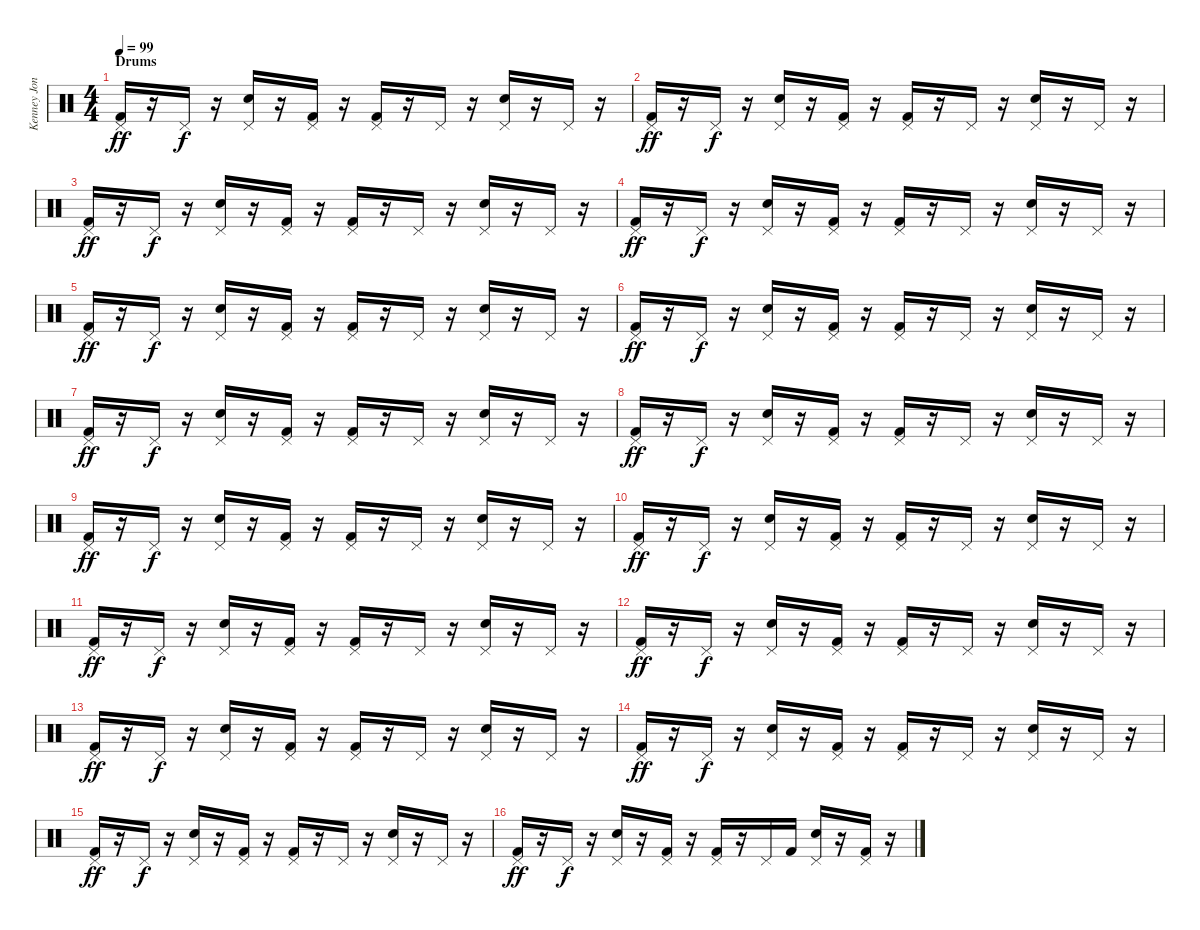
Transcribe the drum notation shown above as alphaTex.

\track ("Kenney Jones" "Kenney Jon") {instrument percussion}
\staff {score}
\articulation defaults
\ts (4 4)
\section ("" "Drums")
\tempo 99
\clef neutral
\ks c
("Pedal Hi-Hat (hit)" "Kick (hit) 2").16{dy ff} r.16 "Pedal Hi-Hat (hit)".16{dy f} r.16 ("Pedal Hi-Hat (hit)" "Snare (hit) 2").16 r.16 ("Pedal Hi-Hat (hit)" "Kick (hit) 2").16 r.16 ("Pedal Hi-Hat (hit)" "Kick (hit) 2").16 r.16 "Pedal Hi-Hat (hit)".16 r.16 ("Pedal Hi-Hat (hit)" "Snare (hit) 2").16 r.16 "Pedal Hi-Hat (hit)".16 r.16 |
("Pedal Hi-Hat (hit)" "Kick (hit) 2").16{dy ff} r.16 "Pedal Hi-Hat (hit)".16{dy f} r.16 ("Pedal Hi-Hat (hit)" "Snare (hit) 2").16 r.16 ("Pedal Hi-Hat (hit)" "Kick (hit) 2").16 r.16 ("Pedal Hi-Hat (hit)" "Kick (hit) 2").16 r.16 "Pedal Hi-Hat (hit)".16 r.16 ("Pedal Hi-Hat (hit)" "Snare (hit) 2").16 r.16 "Pedal Hi-Hat (hit)".16 r.16 |
("Pedal Hi-Hat (hit)" "Kick (hit) 2").16{dy ff} r.16 "Pedal Hi-Hat (hit)".16{dy f} r.16 ("Pedal Hi-Hat (hit)" "Snare (hit) 2").16 r.16 ("Pedal Hi-Hat (hit)" "Kick (hit) 2").16 r.16 ("Pedal Hi-Hat (hit)" "Kick (hit) 2").16 r.16 "Pedal Hi-Hat (hit)".16 r.16 ("Pedal Hi-Hat (hit)" "Snare (hit) 2").16 r.16 "Pedal Hi-Hat (hit)".16 r.16 |
("Pedal Hi-Hat (hit)" "Kick (hit) 2").16{dy ff} r.16 "Pedal Hi-Hat (hit)".16{dy f} r.16 ("Pedal Hi-Hat (hit)" "Snare (hit) 2").16 r.16 ("Pedal Hi-Hat (hit)" "Kick (hit) 2").16 r.16 ("Pedal Hi-Hat (hit)" "Kick (hit) 2").16 r.16 "Pedal Hi-Hat (hit)".16 r.16 ("Pedal Hi-Hat (hit)" "Snare (hit) 2").16 r.16 "Pedal Hi-Hat (hit)".16 r.16 |
("Pedal Hi-Hat (hit)" "Kick (hit) 2").16{dy ff} r.16 "Pedal Hi-Hat (hit)".16{dy f} r.16 ("Pedal Hi-Hat (hit)" "Snare (hit) 2").16 r.16 ("Pedal Hi-Hat (hit)" "Kick (hit) 2").16 r.16 ("Pedal Hi-Hat (hit)" "Kick (hit) 2").16 r.16 "Pedal Hi-Hat (hit)".16 r.16 ("Pedal Hi-Hat (hit)" "Snare (hit) 2").16 r.16 "Pedal Hi-Hat (hit)".16 r.16 |
("Pedal Hi-Hat (hit)" "Kick (hit) 2").16{dy ff} r.16 "Pedal Hi-Hat (hit)".16{dy f} r.16 ("Pedal Hi-Hat (hit)" "Snare (hit) 2").16 r.16 ("Pedal Hi-Hat (hit)" "Kick (hit) 2").16 r.16 ("Pedal Hi-Hat (hit)" "Kick (hit) 2").16 r.16 "Pedal Hi-Hat (hit)".16 r.16 ("Pedal Hi-Hat (hit)" "Snare (hit) 2").16 r.16 "Pedal Hi-Hat (hit)".16 r.16 |
("Pedal Hi-Hat (hit)" "Kick (hit) 2").16{dy ff} r.16 "Pedal Hi-Hat (hit)".16{dy f} r.16 ("Pedal Hi-Hat (hit)" "Snare (hit) 2").16 r.16 ("Pedal Hi-Hat (hit)" "Kick (hit) 2").16 r.16 ("Pedal Hi-Hat (hit)" "Kick (hit) 2").16 r.16 "Pedal Hi-Hat (hit)".16 r.16 ("Pedal Hi-Hat (hit)" "Snare (hit) 2").16 r.16 "Pedal Hi-Hat (hit)".16 r.16 |
("Pedal Hi-Hat (hit)" "Kick (hit) 2").16{dy ff} r.16 "Pedal Hi-Hat (hit)".16{dy f} r.16 ("Pedal Hi-Hat (hit)" "Snare (hit) 2").16 r.16 ("Pedal Hi-Hat (hit)" "Kick (hit) 2").16 r.16 ("Pedal Hi-Hat (hit)" "Kick (hit) 2").16 r.16 "Pedal Hi-Hat (hit)".16 r.16 ("Pedal Hi-Hat (hit)" "Snare (hit) 2").16 r.16 "Pedal Hi-Hat (hit)".16 r.16 |
("Pedal Hi-Hat (hit)" "Kick (hit) 2").16{dy ff} r.16 "Pedal Hi-Hat (hit)".16{dy f} r.16 ("Pedal Hi-Hat (hit)" "Snare (hit) 2").16 r.16 ("Pedal Hi-Hat (hit)" "Kick (hit) 2").16 r.16 ("Pedal Hi-Hat (hit)" "Kick (hit) 2").16 r.16 "Pedal Hi-Hat (hit)".16 r.16 ("Pedal Hi-Hat (hit)" "Snare (hit) 2").16 r.16 "Pedal Hi-Hat (hit)".16 r.16 |
("Pedal Hi-Hat (hit)" "Kick (hit) 2").16{dy ff} r.16 "Pedal Hi-Hat (hit)".16{dy f} r.16 ("Pedal Hi-Hat (hit)" "Snare (hit) 2").16 r.16 ("Pedal Hi-Hat (hit)" "Kick (hit) 2").16 r.16 ("Pedal Hi-Hat (hit)" "Kick (hit) 2").16 r.16 "Pedal Hi-Hat (hit)".16 r.16 ("Pedal Hi-Hat (hit)" "Snare (hit) 2").16 r.16 "Pedal Hi-Hat (hit)".16 r.16 |
("Pedal Hi-Hat (hit)" "Kick (hit) 2").16{dy ff} r.16 "Pedal Hi-Hat (hit)".16{dy f} r.16 ("Pedal Hi-Hat (hit)" "Snare (hit) 2").16 r.16 ("Pedal Hi-Hat (hit)" "Kick (hit) 2").16 r.16 ("Pedal Hi-Hat (hit)" "Kick (hit) 2").16 r.16 "Pedal Hi-Hat (hit)".16 r.16 ("Pedal Hi-Hat (hit)" "Snare (hit) 2").16 r.16 "Pedal Hi-Hat (hit)".16 r.16 |
("Pedal Hi-Hat (hit)" "Kick (hit) 2").16{dy ff} r.16 "Pedal Hi-Hat (hit)".16{dy f} r.16 ("Pedal Hi-Hat (hit)" "Snare (hit) 2").16 r.16 ("Pedal Hi-Hat (hit)" "Kick (hit) 2").16 r.16 ("Pedal Hi-Hat (hit)" "Kick (hit) 2").16 r.16 "Pedal Hi-Hat (hit)".16 r.16 ("Pedal Hi-Hat (hit)" "Snare (hit) 2").16 r.16 "Pedal Hi-Hat (hit)".16 r.16 |
("Pedal Hi-Hat (hit)" "Kick (hit) 2").16{dy ff} r.16 "Pedal Hi-Hat (hit)".16{dy f} r.16 ("Pedal Hi-Hat (hit)" "Snare (hit) 2").16 r.16 ("Pedal Hi-Hat (hit)" "Kick (hit) 2").16 r.16 ("Pedal Hi-Hat (hit)" "Kick (hit) 2").16 r.16 "Pedal Hi-Hat (hit)".16 r.16 ("Pedal Hi-Hat (hit)" "Snare (hit) 2").16 r.16 "Pedal Hi-Hat (hit)".16 r.16 |
("Pedal Hi-Hat (hit)" "Kick (hit) 2").16{dy ff} r.16 "Pedal Hi-Hat (hit)".16{dy f} r.16 ("Pedal Hi-Hat (hit)" "Snare (hit) 2").16 r.16 ("Pedal Hi-Hat (hit)" "Kick (hit) 2").16 r.16 ("Pedal Hi-Hat (hit)" "Kick (hit) 2").16 r.16 "Pedal Hi-Hat (hit)".16 r.16 ("Pedal Hi-Hat (hit)" "Snare (hit) 2").16 r.16 "Pedal Hi-Hat (hit)".16 r.16 |
("Pedal Hi-Hat (hit)" "Kick (hit) 2").16{dy ff} r.16 "Pedal Hi-Hat (hit)".16{dy f} r.16 ("Pedal Hi-Hat (hit)" "Snare (hit) 2").16 r.16 ("Pedal Hi-Hat (hit)" "Kick (hit) 2").16 r.16 ("Pedal Hi-Hat (hit)" "Kick (hit) 2").16 r.16 "Pedal Hi-Hat (hit)".16 r.16 ("Pedal Hi-Hat (hit)" "Snare (hit) 2").16 r.16 "Pedal Hi-Hat (hit)".16 r.16 |
("Pedal Hi-Hat (hit)" "Kick (hit) 2").16{dy ff} r.16 "Pedal Hi-Hat (hit)".16{dy f} r.16 ("Pedal Hi-Hat (hit)" "Snare (hit) 2").16 r.16 ("Pedal Hi-Hat (hit)" "Kick (hit) 2").16 r.16 ("Pedal Hi-Hat (hit)" "Kick (hit) 2").16 r.16 "Pedal Hi-Hat (hit)".16 "Kick (hit) 2".16 ("Pedal Hi-Hat (hit)" "Snare (hit) 2").16 r.16 ("Pedal Hi-Hat (hit)" "Kick (hit) 2").16 r.16
